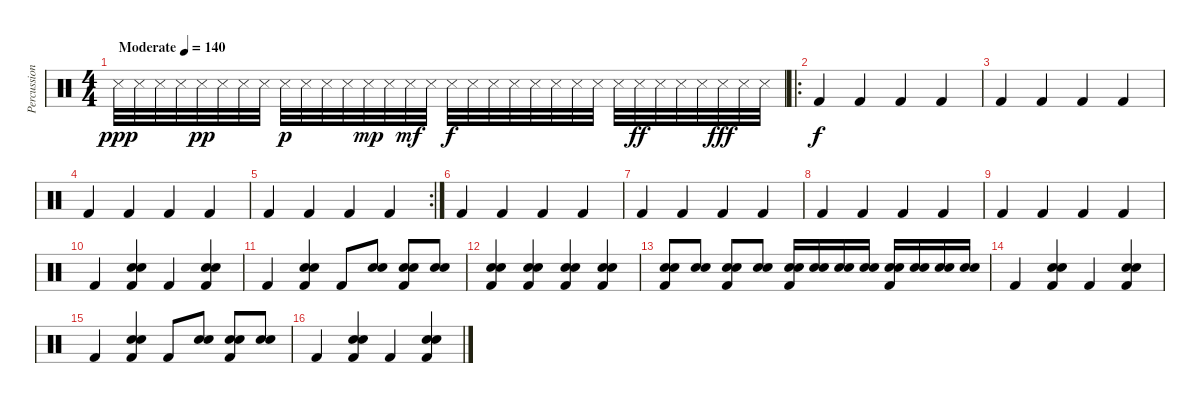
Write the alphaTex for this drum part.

\track ("Percussion" "Percussion") {instrument percussion}
\staff {score}
\articulation defaults
\ts (4 4)
\tempo (140 "Moderate")
\clef neutral
\ks c "Metronome (hit)".32{dy ppp} "Metronome (hit)".32 "Metronome (hit)".32 "Metronome (hit)".32 "Metronome (hit)".32{dy pp} "Metronome (hit)".32 "Metronome (hit)".32 "Metronome (hit)".32 "Metronome (hit)".32{dy p} "Metronome (hit)".32 "Metronome (hit)".32 "Metronome (hit)".32 "Metronome (hit)".32{dy mp} "Metronome (hit)".32 "Metronome (hit)".32{dy mf} "Metronome (hit)".32 "Metronome (hit)".32{dy f} "Metronome (hit)".32 "Metronome (hit)".32 "Metronome (hit)".32 "Metronome (hit)".32 "Metronome (hit)".32 "Metronome (hit)".32 "Metronome (hit)".32 "Metronome (hit)".32 "Metronome (hit)".32{dy ff} "Metronome (hit)".32 "Metronome (hit)".32 "Metronome (hit)".32 "Metronome (hit)".32{dy fff} "Metronome (hit)".32 "Metronome (hit)".32
|
\ro "Kick (hit) 2".4{dy f} "Kick (hit) 2".4 "Kick (hit) 2".4 "Kick (hit) 2".4
|
"Kick (hit) 2".4 "Kick (hit) 2".4 "Kick (hit) 2".4 "Kick (hit) 2".4 |
"Kick (hit) 2".4 "Kick (hit) 2".4 "Kick (hit) 2".4 "Kick (hit) 2".4 |
\rc 2 "Kick (hit) 2".4 "Kick (hit) 2".4 "Kick (hit) 2".4 "Kick (hit) 2".4
|
"Kick (hit) 2".4 "Kick (hit) 2".4 "Kick (hit) 2".4 "Kick (hit) 2".4 |
"Kick (hit) 2".4 "Kick (hit) 2".4 "Kick (hit) 2".4 "Kick (hit) 2".4 |
"Kick (hit) 2".4 "Kick (hit) 2".4 "Kick (hit) 2".4 "Kick (hit) 2".4 |
"Kick (hit) 2".4 "Kick (hit) 2".4 "Kick (hit) 2".4 "Kick (hit) 2".4 |
"Kick (hit) 2".4 ("Snare (hit) 2" "Hand Clap (hit)" "Kick (hit) 2").4 "Kick (hit) 2".4 ("Snare (hit) 2" "Hand Clap (hit)" "Kick (hit) 2").4 |
"Kick (hit) 2".4 ("Snare (hit) 2" "Hand Clap (hit)" "Kick (hit) 2").4 "Kick (hit) 2".8 ("Snare (hit) 2" "Hand Clap (hit)").8 ("Snare (hit) 2" "Hand Clap (hit)" "Kick (hit) 2").8 ("Snare (hit) 2" "Hand Clap (hit)").8 |
("Snare (hit) 2" "Hand Clap (hit)" "Kick (hit) 2").4 ("Snare (hit) 2" "Hand Clap (hit)" "Kick (hit) 2").4 ("Snare (hit) 2" "Hand Clap (hit)" "Kick (hit) 2").4 ("Snare (hit) 2" "Hand Clap (hit)" "Kick (hit) 2").4 |
("Snare (hit) 2" "Hand Clap (hit)" "Kick (hit) 2").8 ("Snare (hit) 2" "Hand Clap (hit)").8 ("Snare (hit) 2" "Hand Clap (hit)" "Kick (hit) 2").8 ("Snare (hit) 2" "Hand Clap (hit)").8 ("Snare (hit) 2" "Hand Clap (hit)" "Kick (hit) 2").16 ("Snare (hit) 2" "Hand Clap (hit)").16 ("Snare (hit) 2" "Hand Clap (hit)").16 ("Snare (hit) 2" "Hand Clap (hit)").16 ("Snare (hit) 2" "Hand Clap (hit)" "Kick (hit) 2").16 ("Snare (hit) 2" "Hand Clap (hit)").16 ("Snare (hit) 2" "Hand Clap (hit)").16 ("Snare (hit) 2" "Hand Clap (hit)").16 |
"Kick (hit) 2".4 ("Snare (hit) 2" "Hand Clap (hit)" "Kick (hit) 2").4 "Kick (hit) 2".4 ("Snare (hit) 2" "Hand Clap (hit)" "Kick (hit) 2").4 |
"Kick (hit) 2".4 ("Snare (hit) 2" "Hand Clap (hit)" "Kick (hit) 2").4 "Kick (hit) 2".8 ("Snare (hit) 2" "Hand Clap (hit)").8 ("Snare (hit) 2" "Hand Clap (hit)" "Kick (hit) 2").8 ("Snare (hit) 2" "Hand Clap (hit)").8 |
"Kick (hit) 2".4 ("Snare (hit) 2" "Hand Clap (hit)" "Kick (hit) 2").4 "Kick (hit) 2".4 ("Snare (hit) 2" "Hand Clap (hit)" "Kick (hit) 2").4
